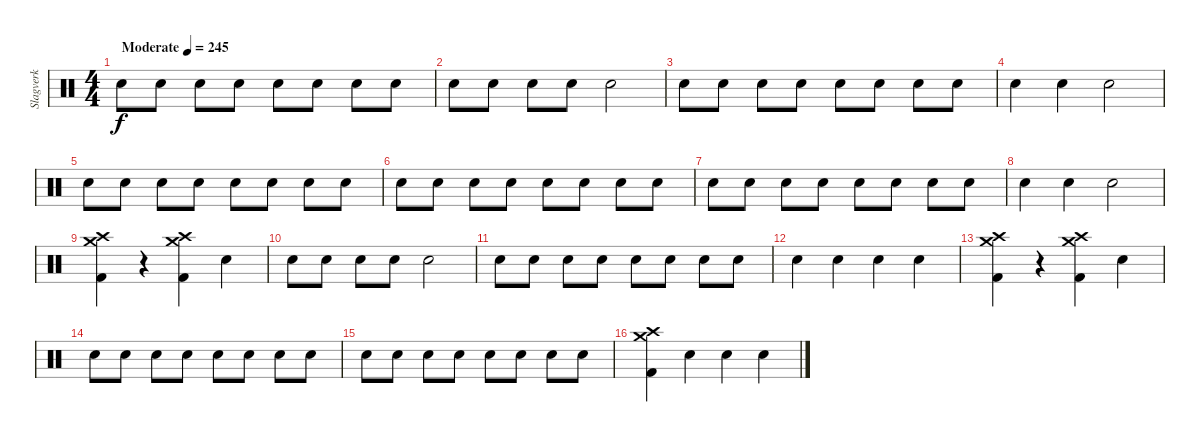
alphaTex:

\track ("Slagverk" "Slagverk") {instrument percussion}
\staff {score}
\articulation defaults
\ts (4 4)
\tempo (245 "Moderate")
\clef neutral
\ks c "Snare (hit) 2".8{dy f} "Snare (hit) 2".8 "Snare (hit) 2".8 "Snare (hit) 2".8 "Snare (hit) 2".8 "Snare (hit) 2".8 "Snare (hit) 2".8 "Snare (hit) 2".8
|
"Snare (hit) 2".8 "Snare (hit) 2".8 "Snare (hit) 2".8 "Snare (hit) 2".8 "Snare (hit) 2".2 |
"Snare (hit) 2".8 "Snare (hit) 2".8 "Snare (hit) 2".8 "Snare (hit) 2".8 "Snare (hit) 2".8 "Snare (hit) 2".8 "Snare (hit) 2".8 "Snare (hit) 2".8 |
"Snare (hit) 2".4 "Snare (hit) 2".4 "Snare (hit) 2".2 |
"Snare (hit) 2".8 "Snare (hit) 2".8 "Snare (hit) 2".8 "Snare (hit) 2".8 "Snare (hit) 2".8 "Snare (hit) 2".8 "Snare (hit) 2".8 "Snare (hit) 2".8 |
"Snare (hit) 2".8 "Snare (hit) 2".8 "Snare (hit) 2".8 "Snare (hit) 2".8 "Snare (hit) 2".8 "Snare (hit) 2".8 "Snare (hit) 2".8 "Snare (hit) 2".8 |
"Snare (hit) 2".8 "Snare (hit) 2".8 "Snare (hit) 2".8 "Snare (hit) 2".8 "Snare (hit) 2".8 "Snare (hit) 2".8 "Snare (hit) 2".8 "Snare (hit) 2".8 |
"Snare (hit) 2".4 "Snare (hit) 2".4 "Snare (hit) 2".2 |
("Crash medium (hit)" "Crash high (hit)" "Kick (hit) 2").4 r.4 ("Crash medium (hit)" "Crash high (hit)" "Kick (hit) 2").4 "Snare (hit) 2".4 |
"Snare (hit) 2".8 "Snare (hit) 2".8 "Snare (hit) 2".8 "Snare (hit) 2".8 "Snare (hit) 2".2 |
"Snare (hit) 2".8 "Snare (hit) 2".8 "Snare (hit) 2".8 "Snare (hit) 2".8 "Snare (hit) 2".8 "Snare (hit) 2".8 "Snare (hit) 2".8 "Snare (hit) 2".8 |
"Snare (hit) 2".4 "Snare (hit) 2".4 "Snare (hit) 2".4 "Snare (hit) 2".4 |
("Crash medium (hit)" "Crash high (hit)" "Kick (hit) 2").4 r.4 ("Crash medium (hit)" "Crash high (hit)" "Kick (hit) 2").4 "Snare (hit) 2".4 |
"Snare (hit) 2".8 "Snare (hit) 2".8 "Snare (hit) 2".8 "Snare (hit) 2".8 "Snare (hit) 2".8 "Snare (hit) 2".8 "Snare (hit) 2".8 "Snare (hit) 2".8 |
"Snare (hit) 2".8 "Snare (hit) 2".8 "Snare (hit) 2".8 "Snare (hit) 2".8 "Snare (hit) 2".8 "Snare (hit) 2".8 "Snare (hit) 2".8 "Snare (hit) 2".8 |
("Crash high (hit)" "Crash medium (hit)" "Kick (hit) 2").4 "Snare (hit) 2".4 "Snare (hit) 2".4 "Snare (hit) 2".4
